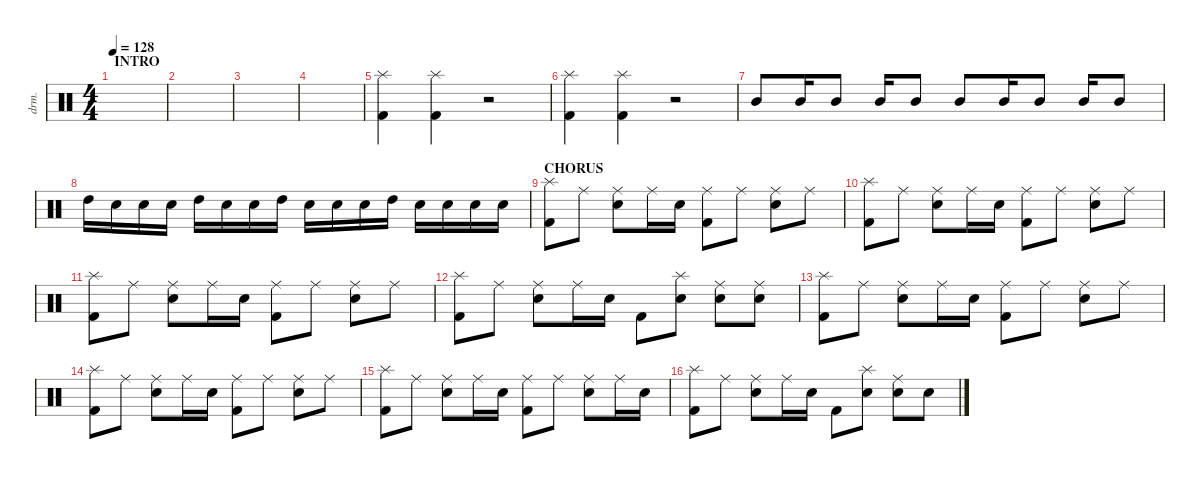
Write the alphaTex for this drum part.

\defaultSystemsLayout 4
\hideDynamics
\bracketExtendMode nobrackets
\track ("Drumkit" "drm.") {instrument percussion}
\staff {score}
\articulation defaults
\ts (4 4)
\section ("" "INTRO")
\tempo 128
\clef neutral
\ks c
|
|
|
|
("Splash (hit)" "Kick (hit) 2").4{beam Down} ("Splash (hit)" "Kick (hit) 2").4{beam Down} r.2{beam Down} |
("Splash (hit)" "Kick (hit) 2").4{beam Down} ("Splash (hit)" "Kick (hit) 2").4{beam Down} r.2{beam Down} |
"Mid Tom (hit)".8{beam Up} "Mid Tom (hit)".16{beam Up} "Mid Tom (hit)".8{beam Up} "Mid Tom (hit)".16{beam Up} "Mid Tom (hit)".8{beam Up} "Mid Tom (hit)".8{beam Up} "Mid Tom (hit)".16{beam Up} "Mid Tom (hit)".8{beam Up} "Mid Tom (hit)".16{beam Up} "Mid Tom (hit)".8{beam Up} |
"High Tom (hit)".16{beam Down} "Snare (hit) 2".16{beam Down} "Snare (hit) 2".16{beam Down} "Snare (hit) 2".16{beam Down} "High Tom (hit)".16{beam Down} "Snare (hit) 2".16{beam Down} "Snare (hit) 2".16{beam Down} "High Tom (hit)".16{beam Down} "Snare (hit) 2".16{beam Down} "Snare (hit) 2".16{beam Down} "Snare (hit) 2".16{beam Down} "High Tom (hit)".16{beam Down} "Snare (hit) 2".16{beam Down} "Snare (hit) 2".16{beam Down} "Snare (hit) 2".16{beam Down} "Snare (hit) 2".16{beam Down} |
\section ("" "CHORUS")
("Kick (hit) 2" "Splash (hit)").8{beam Down} "Ride (middle)".8{beam Down} ("Ride (middle)" "Snare (hit) 2").8{beam Down} "Ride (middle)".16{beam Down} "Snare (hit) 2".16{beam Down} ("Ride (middle)" "Kick (hit) 2").8{beam Down} "Ride (middle)".8{beam Down} ("Ride (middle)" "Snare (hit) 2").8{beam Down} "Ride (middle)".8{beam Down} |
("Kick (hit) 2" "Splash (hit)").8{beam Down} "Ride (middle)".8{beam Down} ("Ride (middle)" "Snare (hit) 2").8{beam Down} "Ride (middle)".16{beam Down} "Snare (hit) 2".16{beam Down} ("Ride (middle)" "Kick (hit) 2").8{beam Down} "Ride (middle)".8{beam Down} ("Ride (middle)" "Snare (hit) 2").8{beam Down} "Ride (middle)".8{beam Down} |
("Kick (hit) 2" "Splash (hit)").8{beam Down} "Ride (middle)".8{beam Down} ("Ride (middle)" "Snare (hit) 2").8{beam Down} "Ride (middle)".16{beam Down} "Snare (hit) 2".16{beam Down} ("Ride (middle)" "Kick (hit) 2").8{beam Down} "Ride (middle)".8{beam Down} ("Ride (middle)" "Snare (hit) 2").8{beam Down} "Ride (middle)".8{beam Down} |
("Kick (hit) 2" "Splash (hit)").8{beam Down} "Ride (middle)".8{beam Down} ("Ride (middle)" "Snare (hit) 2").8{beam Down} "Ride (middle)".16{beam Down} "Snare (hit) 2".16{beam Down} "Kick (hit) 2".8{beam Down} ("Snare (hit) 2" "Splash (hit)").8{beam Down} ("Ride (middle)" "Snare (hit) 2").8{beam Down} ("Ride (middle)" "Snare (hit) 2").8{beam Down} |
("Kick (hit) 2" "Splash (hit)").8{beam Down} "Ride (middle)".8{beam Down} ("Ride (middle)" "Snare (hit) 2").8{beam Down} "Ride (middle)".16{beam Down} "Snare (hit) 2".16{beam Down} ("Ride (middle)" "Kick (hit) 2").8{beam Down} "Ride (middle)".8{beam Down} ("Ride (middle)" "Snare (hit) 2").8{beam Down} "Ride (middle)".8{beam Down} |
("Kick (hit) 2" "Splash (hit)").8{beam Down} "Ride (middle)".8{beam Down} ("Ride (middle)" "Snare (hit) 2").8{beam Down} "Ride (middle)".16{beam Down} "Snare (hit) 2".16{beam Down} ("Ride (middle)" "Kick (hit) 2").8{beam Down} "Ride (middle)".8{beam Down} ("Ride (middle)" "Snare (hit) 2").8{beam Down} "Ride (middle)".8{beam Down} |
("Kick (hit) 2" "Splash (hit)").8{beam Down} "Ride (middle)".8{beam Down} ("Ride (middle)" "Snare (hit) 2").8{beam Down} "Ride (middle)".16{beam Down} "Snare (hit) 2".16{beam Down} ("Ride (middle)" "Kick (hit) 2").8{beam Down} "Ride (middle)".8{beam Down} ("Ride (middle)" "Snare (hit) 2").8{beam Down} "Ride (middle)".16{beam Down} "Snare (hit) 2".16{beam Down} |
("Kick (hit) 2" "Splash (hit)").8{beam Down} "Ride (middle)".8{beam Down} ("Ride (middle)" "Snare (hit) 2").8{beam Down} "Ride (middle)".16{beam Down} "Snare (hit) 2".16{beam Down} "Kick (hit) 2".8{beam Down} ("Snare (hit) 2" "Splash (hit)").8{beam Down} ("Ride (middle)" "Snare (hit) 2").8{beam Down} "Snare (hit) 2".8{beam Down}
